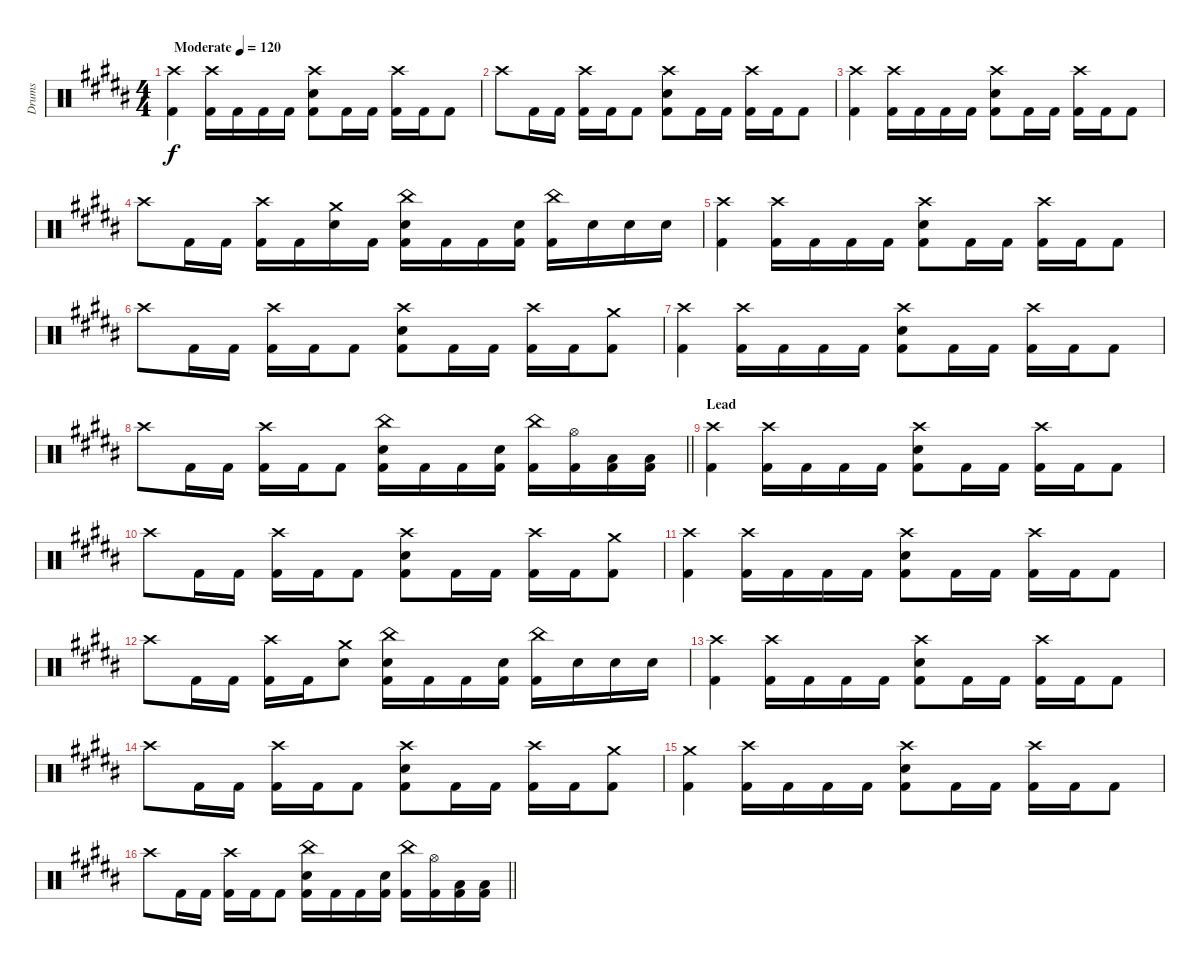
\track ("Drums" "Drums") {instrument percussion}
\staff {score}
\articulation defaults
\ts (4 4)
\tempo (120 "Moderate")
\clef neutral
\ks b
("Crash high (hit)" "Kick (hit) 2").4{dy f} ("Crash high (hit)" "Kick (hit) 2").16 "Kick (hit) 2".16 "Kick (hit) 2".16 "Kick (hit) 2".16 ("Crash high (hit)" "Electric Snare (hit)" "Kick (hit) 2").8 "Kick (hit) 2".16 "Kick (hit) 2".16 ("Crash high (hit)" "Kick (hit) 2").16 "Kick (hit) 2".16 "Kick (hit) 2".8 |
"Crash high (hit)".8 "Kick (hit) 2".16 "Kick (hit) 2".16 ("Crash high (hit)" "Kick (hit) 2").16 "Kick (hit) 2".16 "Kick (hit) 2".8 ("Crash high (hit)" "Electric Snare (hit)" "Kick (hit) 2").8 "Kick (hit) 2".16 "Kick (hit) 2".16 ("Crash high (hit)" "Kick (hit) 2").16 "Kick (hit) 2".16 "Kick (hit) 2".8 |
("Crash high (hit)" "Kick (hit) 2").4 ("Crash high (hit)" "Kick (hit) 2").16 "Kick (hit) 2".16 "Kick (hit) 2".16 "Kick (hit) 2".16 ("Crash high (hit)" "Electric Snare (hit)" "Kick (hit) 2").8 "Kick (hit) 2".16 "Kick (hit) 2".16 ("Crash high (hit)" "Kick (hit) 2").16 "Kick (hit) 2".16 "Kick (hit) 2".8 |
"Crash high (hit)".8 "Kick (hit) 2".16 "Kick (hit) 2".16 ("Crash high (hit)" "Kick (hit) 2").16 "Kick (hit) 2".16 ("Crash medium (hit)" "Electric Snare (hit)").16 "Kick (hit) 2".16 ("China (hit)" "Electric Snare (hit)" "Kick (hit) 2").16 "Kick (hit) 2".16 "Kick (hit) 2".16 ("Electric Snare (hit)" "Kick (hit) 2").16 ("China (hit)" "Kick (hit) 2").16 "Electric Snare (hit)".16 "Electric Snare (hit)".16 "Electric Snare (hit)".16 |
("Crash high (hit)" "Kick (hit) 2").4 ("Crash high (hit)" "Kick (hit) 2").16 "Kick (hit) 2".16 "Kick (hit) 2".16 "Kick (hit) 2".16 ("Crash high (hit)" "Electric Snare (hit)" "Kick (hit) 2").8 "Kick (hit) 2".16 "Kick (hit) 2".16 ("Crash high (hit)" "Kick (hit) 2").16 "Kick (hit) 2".16 "Kick (hit) 2".8 |
"Crash high (hit)".8 "Kick (hit) 2".16 "Kick (hit) 2".16 ("Crash high (hit)" "Kick (hit) 2").16 "Kick (hit) 2".16 "Kick (hit) 2".8 ("Crash high (hit)" "Electric Snare (hit)" "Kick (hit) 2").8 "Kick (hit) 2".16 "Kick (hit) 2".16 ("Crash high (hit)" "Kick (hit) 2").16 "Kick (hit) 2".16 ("Crash medium (hit)" "Kick (hit) 2").8 |
("Crash high (hit)" "Kick (hit) 2").4 ("Crash high (hit)" "Kick (hit) 2").16 "Kick (hit) 2".16 "Kick (hit) 2".16 "Kick (hit) 2".16 ("Crash high (hit)" "Electric Snare (hit)" "Kick (hit) 2").8 "Kick (hit) 2".16 "Kick (hit) 2".16 ("Crash high (hit)" "Kick (hit) 2").16 "Kick (hit) 2".16 "Kick (hit) 2".8 |
\barLineRight lightlight "Crash high (hit)".8 "Kick (hit) 2".16 "Kick (hit) 2".16
("Crash high (hit)" "Kick (hit) 2").16 "Kick (hit) 2".16 "Kick (hit) 2".8 ("China (hit)" "Electric Snare (hit)" "Kick (hit) 2").16 "Kick (hit) 2".16 "Kick (hit) 2".16 ("Electric Snare (hit)" "Kick (hit) 2").16 ("China (hit)" "Kick (hit) 2").16 ("Hi-Hat (open)" "Kick (hit) 2").16 ("Low Floor Tom (hit)" "Kick (hit) 2").16 ("Low Floor Tom (hit)" "Kick (hit) 2").16 |
\section ("" "Lead")
("Crash high (hit)" "Kick (hit) 2").4 ("Crash high (hit)" "Kick (hit) 2").16 "Kick (hit) 2".16 "Kick (hit) 2".16 "Kick (hit) 2".16 ("Crash high (hit)" "Electric Snare (hit)" "Kick (hit) 2").8 "Kick (hit) 2".16 "Kick (hit) 2".16 ("Crash high (hit)" "Kick (hit) 2").16 "Kick (hit) 2".16 "Kick (hit) 2".8 |
"Crash high (hit)".8 "Kick (hit) 2".16 "Kick (hit) 2".16 ("Crash high (hit)" "Kick (hit) 2").16 "Kick (hit) 2".16 "Kick (hit) 2".8 ("Crash high (hit)" "Electric Snare (hit)" "Kick (hit) 2").8 "Kick (hit) 2".16 "Kick (hit) 2".16 ("Crash high (hit)" "Kick (hit) 2").16 "Kick (hit) 2".16 ("Crash medium (hit)" "Kick (hit) 2").8 |
("Crash high (hit)" "Kick (hit) 2").4 ("Crash high (hit)" "Kick (hit) 2").16 "Kick (hit) 2".16 "Kick (hit) 2".16 "Kick (hit) 2".16 ("Crash high (hit)" "Electric Snare (hit)" "Kick (hit) 2").8 "Kick (hit) 2".16 "Kick (hit) 2".16 ("Crash high (hit)" "Kick (hit) 2").16 "Kick (hit) 2".16 "Kick (hit) 2".8 |
"Crash high (hit)".8 "Kick (hit) 2".16 "Kick (hit) 2".16 ("Crash high (hit)" "Kick (hit) 2").16 "Kick (hit) 2".16 ("Crash medium (hit)" "Electric Snare (hit)").8 ("China (hit)" "Electric Snare (hit)" "Kick (hit) 2").16 "Kick (hit) 2".16 "Kick (hit) 2".16 ("Electric Snare (hit)" "Kick (hit) 2").16 ("China (hit)" "Kick (hit) 2").16 "Electric Snare (hit)".16 "Electric Snare (hit)".16 "Electric Snare (hit)".16 |
("Crash high (hit)" "Kick (hit) 2").4 ("Crash high (hit)" "Kick (hit) 2").16 "Kick (hit) 2".16 "Kick (hit) 2".16 "Kick (hit) 2".16 ("Crash high (hit)" "Electric Snare (hit)" "Kick (hit) 2").8 "Kick (hit) 2".16 "Kick (hit) 2".16 ("Crash high (hit)" "Kick (hit) 2").16 "Kick (hit) 2".16 "Kick (hit) 2".8 |
"Crash high (hit)".8 "Kick (hit) 2".16 "Kick (hit) 2".16 ("Crash high (hit)" "Kick (hit) 2").16 "Kick (hit) 2".16 "Kick (hit) 2".8 ("Crash high (hit)" "Electric Snare (hit)" "Kick (hit) 2").8 "Kick (hit) 2".16 "Kick (hit) 2".16 ("Crash high (hit)" "Kick (hit) 2").16 "Kick (hit) 2".16 ("Crash medium (hit)" "Kick (hit) 2").8 |
("Crash medium (hit)" "Kick (hit) 2").4 ("Crash high (hit)" "Kick (hit) 2").16 "Kick (hit) 2".16 "Kick (hit) 2".16 "Kick (hit) 2".16 ("Crash high (hit)" "Electric Snare (hit)" "Kick (hit) 2").8 "Kick (hit) 2".16 "Kick (hit) 2".16 ("Crash high (hit)" "Kick (hit) 2").16 "Kick (hit) 2".16 "Kick (hit) 2".8 |
\barLineRight lightlight "Crash high (hit)".8 "Kick (hit) 2".16 "Kick (hit) 2".16
("Crash high (hit)" "Kick (hit) 2").16 "Kick (hit) 2".16 "Kick (hit) 2".8 ("China (hit)" "Electric Snare (hit)" "Kick (hit) 2").16 "Kick (hit) 2".16 "Kick (hit) 2".16 ("Electric Snare (hit)" "Kick (hit) 2").16 ("China (hit)" "Kick (hit) 2").16 ("Hi-Hat (open)" "Kick (hit) 2").16 ("Low Floor Tom (hit)" "Kick (hit) 2").16 ("Low Floor Tom (hit)" "Kick (hit) 2").16
